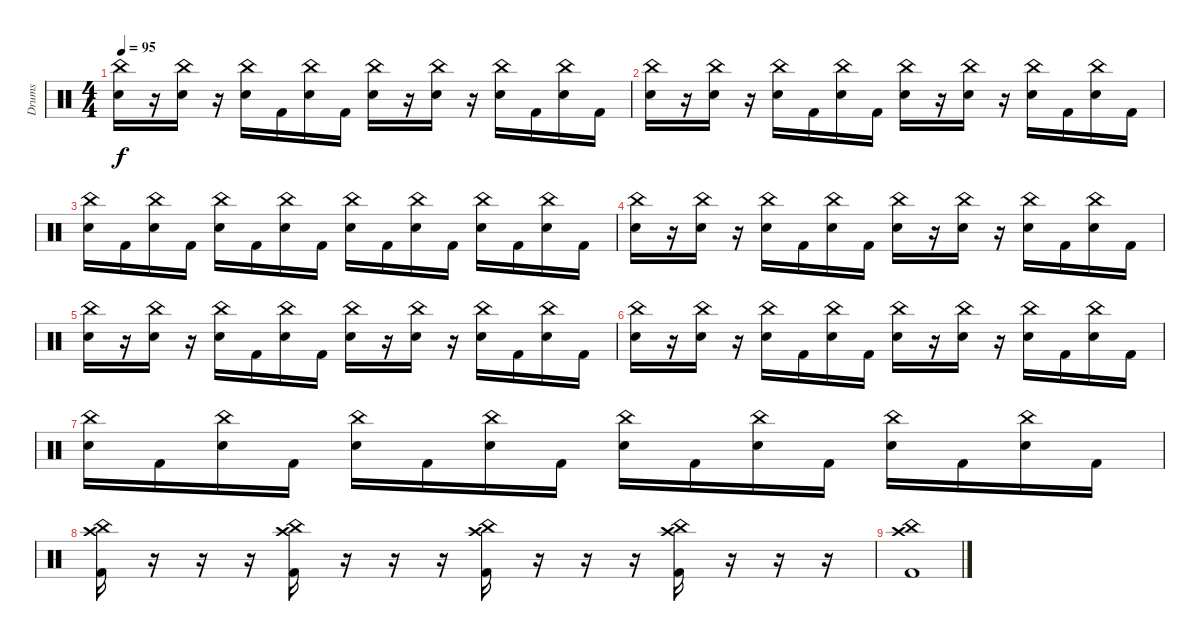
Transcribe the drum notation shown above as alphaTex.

\track ("Drums" "Drums") {instrument percussion}
\staff {score}
\articulation defaults
\ts (4 4)
\tempo 95
\clef neutral
\ks c
("China (hit)" "Electric Snare (hit)").16{dy f} r.16 ("China (hit)" "Electric Snare (hit)").16 r.16 ("China (hit)" "Electric Snare (hit)").16 "Kick (hit) 2".16 ("China (hit)" "Electric Snare (hit)").16 "Kick (hit) 2".16 ("China (hit)" "Electric Snare (hit)").16 r.16 ("China (hit)" "Electric Snare (hit)").16 r.16 ("China (hit)" "Electric Snare (hit)").16 "Kick (hit) 2".16 ("China (hit)" "Electric Snare (hit)").16 "Kick (hit) 2".16 |
("China (hit)" "Electric Snare (hit)").16 r.16 ("China (hit)" "Electric Snare (hit)").16 r.16 ("China (hit)" "Electric Snare (hit)").16 "Kick (hit) 2".16 ("China (hit)" "Electric Snare (hit)").16 "Kick (hit) 2".16 ("China (hit)" "Electric Snare (hit)").16 r.16 ("China (hit)" "Electric Snare (hit)").16 r.16 ("China (hit)" "Electric Snare (hit)").16 "Kick (hit) 2".16 ("China (hit)" "Electric Snare (hit)").16 "Kick (hit) 2".16 |
("China (hit)" "Electric Snare (hit)").16 "Kick (hit) 2".16 ("China (hit)" "Electric Snare (hit)").16 "Kick (hit) 2".16 ("China (hit)" "Electric Snare (hit)").16 "Kick (hit) 2".16 ("China (hit)" "Electric Snare (hit)").16 "Kick (hit) 2".16 ("China (hit)" "Electric Snare (hit)").16 "Kick (hit) 2".16 ("China (hit)" "Electric Snare (hit)").16 "Kick (hit) 2".16 ("China (hit)" "Electric Snare (hit)").16 "Kick (hit) 2".16 ("China (hit)" "Electric Snare (hit)").16 "Kick (hit) 2".16 |
("China (hit)" "Electric Snare (hit)").16 r.16 ("China (hit)" "Electric Snare (hit)").16 r.16 ("China (hit)" "Electric Snare (hit)").16 "Kick (hit) 2".16 ("China (hit)" "Electric Snare (hit)").16 "Kick (hit) 2".16 ("China (hit)" "Electric Snare (hit)").16 r.16 ("China (hit)" "Electric Snare (hit)").16 r.16 ("China (hit)" "Electric Snare (hit)").16 "Kick (hit) 2".16 ("China (hit)" "Electric Snare (hit)").16 "Kick (hit) 2".16 |
("China (hit)" "Electric Snare (hit)").16 r.16 ("China (hit)" "Electric Snare (hit)").16 r.16 ("China (hit)" "Electric Snare (hit)").16 "Kick (hit) 2".16 ("China (hit)" "Electric Snare (hit)").16 "Kick (hit) 2".16 ("China (hit)" "Electric Snare (hit)").16 r.16 ("China (hit)" "Electric Snare (hit)").16 r.16 ("China (hit)" "Electric Snare (hit)").16 "Kick (hit) 2".16 ("China (hit)" "Electric Snare (hit)").16 "Kick (hit) 2".16 |
("China (hit)" "Electric Snare (hit)").16 r.16 ("China (hit)" "Electric Snare (hit)").16 r.16 ("China (hit)" "Electric Snare (hit)").16 "Kick (hit) 2".16 ("China (hit)" "Electric Snare (hit)").16 "Kick (hit) 2".16 ("China (hit)" "Electric Snare (hit)").16 r.16 ("China (hit)" "Electric Snare (hit)").16 r.16 ("China (hit)" "Electric Snare (hit)").16 "Kick (hit) 2".16 ("China (hit)" "Electric Snare (hit)").16 "Kick (hit) 2".16 |
("China (hit)" "Electric Snare (hit)").16 "Kick (hit) 2".16 ("China (hit)" "Electric Snare (hit)").16 "Kick (hit) 2".16 ("China (hit)" "Electric Snare (hit)").16 "Kick (hit) 2".16 ("China (hit)" "Electric Snare (hit)").16 "Kick (hit) 2".16 ("China (hit)" "Electric Snare (hit)").16 "Kick (hit) 2".16 ("China (hit)" "Electric Snare (hit)").16 "Kick (hit) 2".16 ("China (hit)" "Electric Snare (hit)").16 "Kick (hit) 2".16 ("China (hit)" "Electric Snare (hit)").16 "Kick (hit) 2".16 |
("Crash high (hit)" "China (hit)" "Kick (hit) 2").16 r.16 r.16 r.16 ("Crash high (hit)" "China (hit)" "Kick (hit) 2").16 r.16 r.16 r.16 ("Crash high (hit)" "China (hit)" "Kick (hit) 2").16 r.16 r.16 r.16 ("Crash high (hit)" "China (hit)" "Kick (hit) 2").16 r.16 r.16 r.16 |
("Crash high (hit)" "China (hit)" "Kick (hit) 2").1
